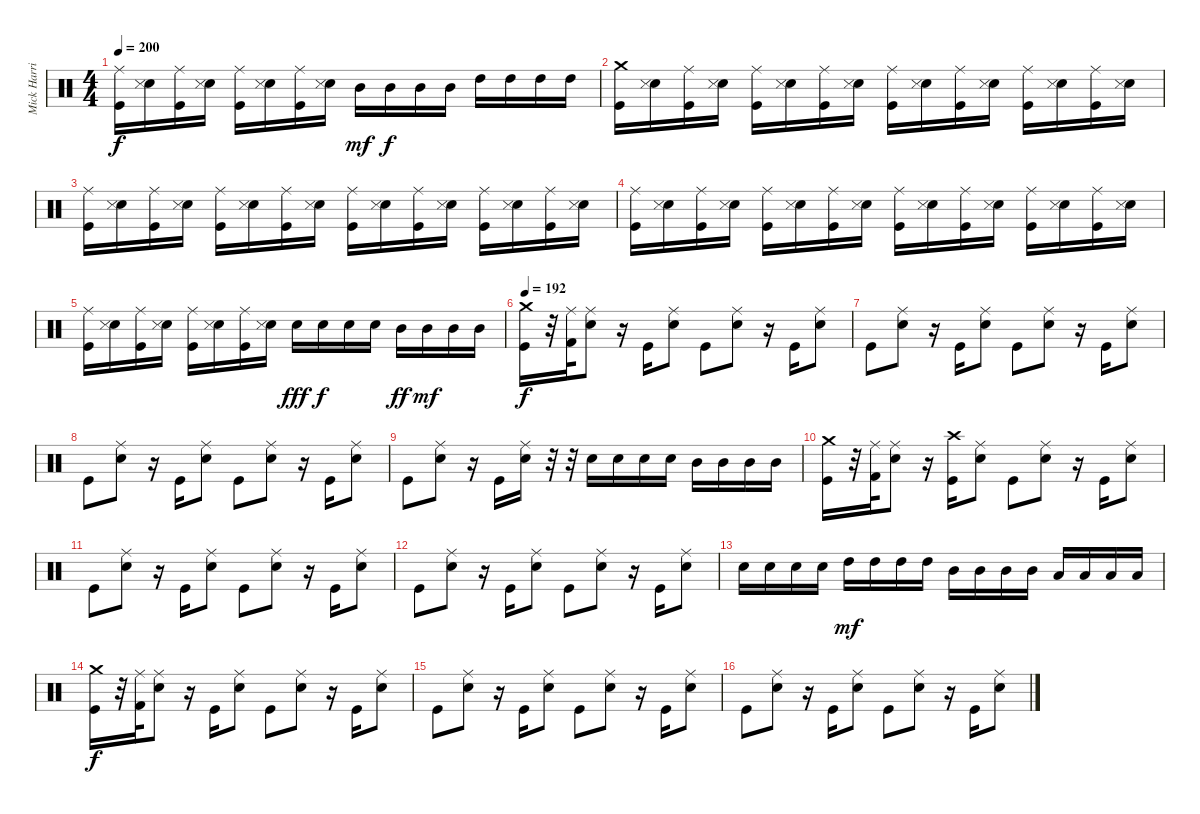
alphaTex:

\track ("Mick Harris (Drums)" "Mick Harri") {instrument percussion}
\staff {score}
\articulation defaults
\ts (4 4)
\tempo 200
\clef neutral
\ks c
("Kick (hit)" "Ride (middle)").16{dy f} ("Electric Snare (hit)" "Snare (side stick) 3").16 ("Kick (hit)" "Ride (middle)").16 ("Electric Snare (hit)" "Snare (side stick) 3").16 ("Kick (hit)" "Ride (middle)").16 ("Electric Snare (hit)" "Snare (side stick) 3").16 ("Kick (hit)" "Ride (middle)").16 ("Electric Snare (hit)" "Snare (side stick) 3").16 "Mid Tom (hit)".16{dy mf} "Mid Tom (hit)".16{dy f} "Mid Tom (hit)".16 "Mid Tom (hit)".16 "High Tom (hit)".16 "High Tom (hit)".16 "High Tom (hit)".16 "High Tom (hit)".16 |
("Kick (hit)" "Crash medium (hit)").16 ("Electric Snare (hit)" "Snare (side stick) 3").16 ("Kick (hit)" "Ride (middle)").16 ("Electric Snare (hit)" "Snare (side stick) 3").16 ("Kick (hit)" "Ride (middle)").16 ("Electric Snare (hit)" "Snare (side stick) 3").16 ("Kick (hit)" "Ride (middle)").16 ("Electric Snare (hit)" "Snare (side stick) 3").16 ("Kick (hit)" "Ride (middle)").16 ("Electric Snare (hit)" "Snare (side stick) 3").16 ("Kick (hit)" "Ride (middle)").16 ("Electric Snare (hit)" "Snare (side stick) 3").16 ("Kick (hit)" "Ride (middle)").16 ("Electric Snare (hit)" "Snare (side stick) 3").16 ("Kick (hit)" "Ride (middle)").16 ("Electric Snare (hit)" "Snare (side stick) 3").16 |
("Kick (hit)" "Ride (middle)").16 ("Electric Snare (hit)" "Snare (side stick) 3").16 ("Kick (hit)" "Ride (middle)").16 ("Electric Snare (hit)" "Snare (side stick) 3").16 ("Kick (hit)" "Ride (middle)").16 ("Electric Snare (hit)" "Snare (side stick) 3").16 ("Kick (hit)" "Ride (middle)").16 ("Electric Snare (hit)" "Snare (side stick) 3").16 ("Kick (hit)" "Ride (middle)").16 ("Electric Snare (hit)" "Snare (side stick) 3").16 ("Kick (hit)" "Ride (middle)").16 ("Electric Snare (hit)" "Snare (side stick) 3").16 ("Kick (hit)" "Ride (middle)").16 ("Electric Snare (hit)" "Snare (side stick) 3").16 ("Kick (hit)" "Ride (middle)").16 ("Electric Snare (hit)" "Snare (side stick) 3").16 |
("Kick (hit)" "Ride (middle)").16 ("Electric Snare (hit)" "Snare (side stick) 3").16 ("Kick (hit)" "Ride (middle)").16 ("Electric Snare (hit)" "Snare (side stick) 3").16 ("Kick (hit)" "Ride (middle)").16 ("Electric Snare (hit)" "Snare (side stick) 3").16 ("Kick (hit)" "Ride (middle)").16 ("Electric Snare (hit)" "Snare (side stick) 3").16 ("Kick (hit)" "Ride (middle)").16 ("Electric Snare (hit)" "Snare (side stick) 3").16 ("Kick (hit)" "Ride (middle)").16 ("Electric Snare (hit)" "Snare (side stick) 3").16 ("Kick (hit)" "Ride (middle)").16 ("Electric Snare (hit)" "Snare (side stick) 3").16 ("Kick (hit)" "Ride (middle)").16 ("Electric Snare (hit)" "Snare (side stick) 3").16 |
("Kick (hit)" "Ride (middle)").16 ("Electric Snare (hit)" "Snare (side stick) 3").16 ("Kick (hit)" "Ride (middle)").16 ("Electric Snare (hit)" "Snare (side stick) 3").16 ("Kick (hit)" "Ride (middle)").16 ("Electric Snare (hit)" "Snare (side stick) 3").16 ("Kick (hit)" "Ride (middle)").16 ("Electric Snare (hit)" "Snare (side stick) 3").16 "Electric Snare (hit)".16{dy fff} "Electric Snare (hit)".16{dy f} "Electric Snare (hit)".16 "Electric Snare (hit)".16 "Mid Tom (hit)".16{dy ff} "Mid Tom (hit)".16{dy mf} "Mid Tom (hit)".16 "Mid Tom (hit)".16 |
\tempo 192
("Kick (hit)" "Crash medium (hit)").16{dy f} r.32 ("Kick (hit) 2" "Ride (middle)").32 ("Electric Snare (hit)" "Ride (middle)").8 r.16 "Kick (hit)".16 ("Electric Snare (hit)" "Ride (middle)").8 "Kick (hit)".8 ("Electric Snare (hit)" "Ride (middle)").8 r.16 "Kick (hit)".16 ("Electric Snare (hit)" "Ride (middle)").8 |
"Kick (hit)".8 ("Electric Snare (hit)" "Ride (middle)").8 r.16 "Kick (hit)".16 ("Electric Snare (hit)" "Ride (middle)").8 "Kick (hit)".8 ("Electric Snare (hit)" "Ride (middle)").8 r.16 "Kick (hit)".16 ("Electric Snare (hit)" "Ride (middle)").8 |
"Kick (hit)".8 ("Electric Snare (hit)" "Ride (middle)").8 r.16 "Kick (hit)".16 ("Electric Snare (hit)" "Ride (middle)").8 "Kick (hit)".8 ("Electric Snare (hit)" "Ride (middle)").8 r.16 "Kick (hit)".16 ("Electric Snare (hit)" "Ride (middle)").8 |
"Kick (hit)".8 ("Electric Snare (hit)" "Ride (middle)").8 r.16 "Kick (hit)".16 ("Electric Snare (hit)" "Ride (middle)").16 r.32 r.32 "Electric Snare (hit)".16 "Electric Snare (hit)".16 "Electric Snare (hit)".16 "Electric Snare (hit)".16 "Mid Tom (hit)".16 "Mid Tom (hit)".16 "Mid Tom (hit)".16 "Mid Tom (hit)".16 |
("Kick (hit)" "Crash medium (hit)").16 r.32 ("Kick (hit) 2" "Ride (middle)").32 ("Electric Snare (hit)" "Ride (middle)").8 r.16 ("Kick (hit)" "Crash high (hit)").16 ("Electric Snare (hit)" "Ride (middle)").8 "Kick (hit)".8 ("Electric Snare (hit)" "Ride (middle)").8 r.16 "Kick (hit)".16 ("Electric Snare (hit)" "Ride (middle)").8 |
"Kick (hit)".8 ("Electric Snare (hit)" "Ride (middle)").8 r.16 "Kick (hit)".16 ("Electric Snare (hit)" "Ride (middle)").8 "Kick (hit)".8 ("Electric Snare (hit)" "Ride (middle)").8 r.16 "Kick (hit)".16 ("Electric Snare (hit)" "Ride (middle)").8 |
"Kick (hit)".8 ("Electric Snare (hit)" "Ride (middle)").8 r.16 "Kick (hit)".16 ("Electric Snare (hit)" "Ride (middle)").8 "Kick (hit)".8 ("Electric Snare (hit)" "Ride (middle)").8 r.16 "Kick (hit)".16 ("Electric Snare (hit)" "Ride (middle)").8 |
"Electric Snare (hit)".16 "Electric Snare (hit)".16 "Electric Snare (hit)".16 "Electric Snare (hit)".16 "High Tom (hit)".16{dy mf} "High Tom (hit)".16 "High Tom (hit)".16 "High Tom (hit)".16 "Mid Tom (hit)".16 "Mid Tom (hit)".16 "Mid Tom (hit)".16 "Mid Tom (hit)".16 "Low Tom (hit)".16 "Low Tom (hit)".16 "Low Tom (hit)".16 "Low Tom (hit)".16 |
("Kick (hit)" "Crash medium (hit)").16{dy f} r.32 ("Kick (hit) 2" "Ride (middle)").32 ("Electric Snare (hit)" "Ride (middle)").8 r.16 "Kick (hit)".16 ("Electric Snare (hit)" "Ride (middle)").8 "Kick (hit)".8 ("Electric Snare (hit)" "Ride (middle)").8 r.16 "Kick (hit)".16 ("Electric Snare (hit)" "Ride (middle)").8 |
"Kick (hit)".8 ("Electric Snare (hit)" "Ride (middle)").8 r.16 "Kick (hit)".16 ("Electric Snare (hit)" "Ride (middle)").8 "Kick (hit)".8 ("Electric Snare (hit)" "Ride (middle)").8 r.16 "Kick (hit)".16 ("Electric Snare (hit)" "Ride (middle)").8 |
"Kick (hit)".8 ("Electric Snare (hit)" "Ride (middle)").8 r.16 "Kick (hit)".16 ("Electric Snare (hit)" "Ride (middle)").8 "Kick (hit)".8 ("Electric Snare (hit)" "Ride (middle)").8 r.16 "Kick (hit)".16 ("Electric Snare (hit)" "Ride (middle)").8
